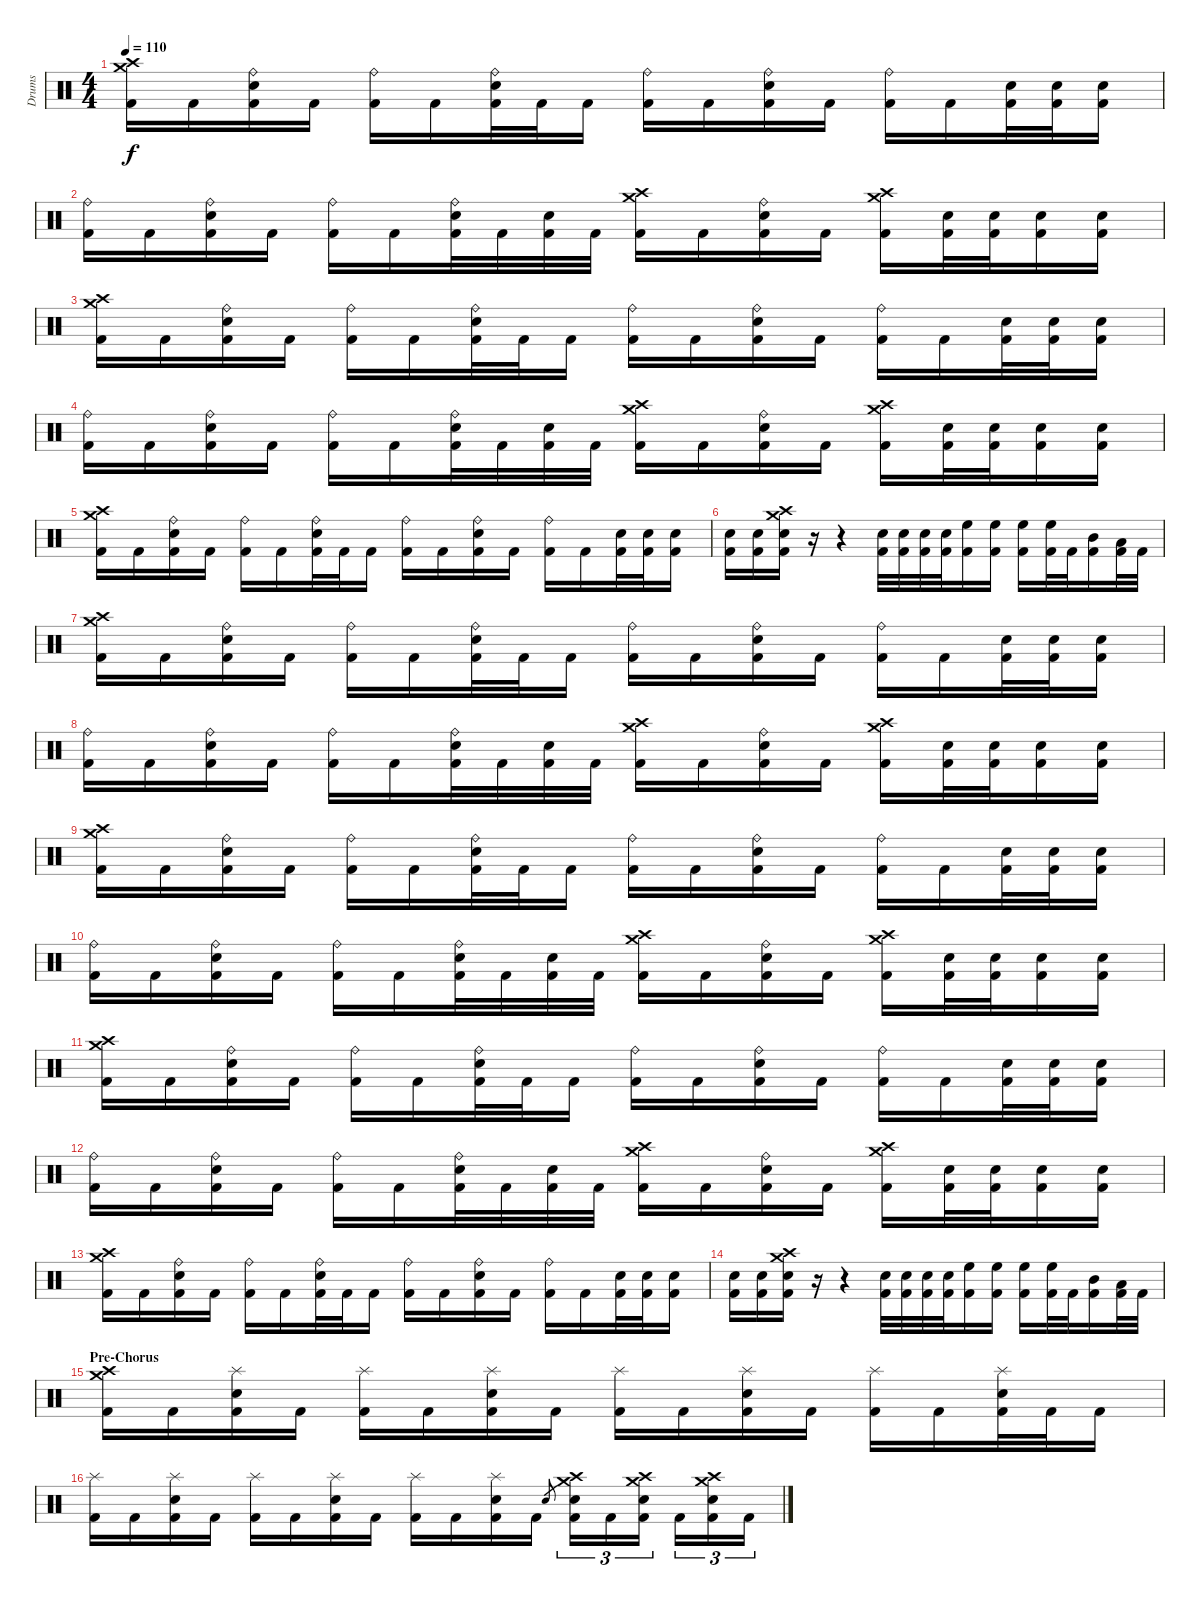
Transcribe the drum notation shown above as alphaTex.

\track ("Drums" "Drums") {instrument percussion}
\staff {score}
\articulation defaults
\ts (4 4)
\tempo 110
\clef neutral
\ks c
("Crash medium (hit)" "Crash high (hit)" "Kick (hit) 2").16{dy f} "Kick (hit) 2".16 ("Ride (bell)" "Electric Snare (hit)" "Kick (hit) 2").16 "Kick (hit) 2".16 ("Ride (bell)" "Kick (hit) 2").16 "Kick (hit) 2".16 ("Ride (bell)" "Electric Snare (hit)" "Kick (hit) 2").32 "Kick (hit) 2".32 "Kick (hit) 2".16 ("Ride (bell)" "Kick (hit) 2").16 "Kick (hit) 2".16 ("Ride (bell)" "Electric Snare (hit)" "Kick (hit) 2").16 "Kick (hit) 2".16 ("Ride (bell)" "Kick (hit) 2").16 "Kick (hit) 2".16 ("Electric Snare (hit)" "Kick (hit) 2").32 ("Electric Snare (hit)" "Kick (hit) 2").32 ("Electric Snare (hit)" "Kick (hit) 2").16 |
("Ride (bell)" "Kick (hit) 2").16 "Kick (hit) 2".16 ("Ride (bell)" "Electric Snare (hit)" "Kick (hit) 2").16 "Kick (hit) 2".16 ("Ride (bell)" "Kick (hit) 2").16 "Kick (hit) 2".16 ("Ride (bell)" "Electric Snare (hit)" "Kick (hit) 2").32 "Kick (hit) 2".32 ("Electric Snare (hit)" "Kick (hit) 2").32 "Kick (hit) 2".32 ("Crash medium (hit)" "Crash high (hit)" "Kick (hit) 2").16 "Kick (hit) 2".16 ("Ride (bell)" "Electric Snare (hit)" "Kick (hit) 2").16 "Kick (hit) 2".16 ("Crash medium (hit)" "Crash high (hit)" "Kick (hit) 2").16 ("Electric Snare (hit)" "Kick (hit) 2").32 ("Electric Snare (hit)" "Kick (hit) 2").32 ("Electric Snare (hit)" "Kick (hit) 2").16 ("Electric Snare (hit)" "Kick (hit) 2").16 |
("Crash medium (hit)" "Crash high (hit)" "Kick (hit) 2").16 "Kick (hit) 2".16 ("Ride (bell)" "Electric Snare (hit)" "Kick (hit) 2").16 "Kick (hit) 2".16 ("Ride (bell)" "Kick (hit) 2").16 "Kick (hit) 2".16 ("Ride (bell)" "Electric Snare (hit)" "Kick (hit) 2").32 "Kick (hit) 2".32 "Kick (hit) 2".16 ("Ride (bell)" "Kick (hit) 2").16 "Kick (hit) 2".16 ("Ride (bell)" "Electric Snare (hit)" "Kick (hit) 2").16 "Kick (hit) 2".16 ("Ride (bell)" "Kick (hit) 2").16 "Kick (hit) 2".16 ("Electric Snare (hit)" "Kick (hit) 2").32 ("Electric Snare (hit)" "Kick (hit) 2").32 ("Electric Snare (hit)" "Kick (hit) 2").16 |
("Ride (bell)" "Kick (hit) 2").16 "Kick (hit) 2".16 ("Ride (bell)" "Electric Snare (hit)" "Kick (hit) 2").16 "Kick (hit) 2".16 ("Ride (bell)" "Kick (hit) 2").16 "Kick (hit) 2".16 ("Ride (bell)" "Electric Snare (hit)" "Kick (hit) 2").32 "Kick (hit) 2".32 ("Electric Snare (hit)" "Kick (hit) 2").32 "Kick (hit) 2".32 ("Crash medium (hit)" "Crash high (hit)" "Kick (hit) 2").16 "Kick (hit) 2".16 ("Ride (bell)" "Electric Snare (hit)" "Kick (hit) 2").16 "Kick (hit) 2".16 ("Crash medium (hit)" "Crash high (hit)" "Kick (hit) 2").16 ("Electric Snare (hit)" "Kick (hit) 2").32 ("Electric Snare (hit)" "Kick (hit) 2").32 ("Electric Snare (hit)" "Kick (hit) 2").16 ("Electric Snare (hit)" "Kick (hit) 2").16 |
("Crash medium (hit)" "Crash high (hit)" "Kick (hit) 2").16 "Kick (hit) 2".16 ("Ride (bell)" "Electric Snare (hit)" "Kick (hit) 2").16 "Kick (hit) 2".16 ("Ride (bell)" "Kick (hit) 2").16 "Kick (hit) 2".16 ("Ride (bell)" "Electric Snare (hit)" "Kick (hit) 2").32 "Kick (hit) 2".32 "Kick (hit) 2".16 ("Ride (bell)" "Kick (hit) 2").16 "Kick (hit) 2".16 ("Ride (bell)" "Electric Snare (hit)" "Kick (hit) 2").16 "Kick (hit) 2".16 ("Ride (bell)" "Kick (hit) 2").16 "Kick (hit) 2".16 ("Electric Snare (hit)" "Kick (hit) 2").32 ("Electric Snare (hit)" "Kick (hit) 2").32 ("Electric Snare (hit)" "Kick (hit) 2").16 |
("Electric Snare (hit)" "Kick (hit) 2").16 ("Electric Snare (hit)" "Kick (hit) 2").16 ("Crash medium (hit)" "Crash high (hit)" "Electric Snare (hit)" "Kick (hit) 2").16 r.16 r.4 ("Electric Snare (hit)" "Kick (hit) 2").32 ("Electric Snare (hit)" "Kick (hit) 2").32 ("Electric Snare (hit)" "Kick (hit) 2").32 ("Electric Snare (hit)" "Kick (hit) 2").32 ("High Floor Tom (hit)" "Kick (hit) 2").16 ("High Floor Tom (hit)" "Kick (hit) 2").16 ("High Floor Tom (hit)" "Kick (hit) 2").16 ("High Floor Tom (hit)" "Kick (hit) 2").32 "Kick (hit) 2".32 ("Mid Tom (hit)" "Kick (hit) 2").16 ("Low Tom (hit)" "Kick (hit) 2").32 "Kick (hit) 2".32 |
("Crash medium (hit)" "Crash high (hit)" "Kick (hit) 2").16 "Kick (hit) 2".16 ("Ride (bell)" "Electric Snare (hit)" "Kick (hit) 2").16 "Kick (hit) 2".16 ("Ride (bell)" "Kick (hit) 2").16 "Kick (hit) 2".16 ("Ride (bell)" "Electric Snare (hit)" "Kick (hit) 2").32 "Kick (hit) 2".32 "Kick (hit) 2".16 ("Ride (bell)" "Kick (hit) 2").16 "Kick (hit) 2".16 ("Ride (bell)" "Electric Snare (hit)" "Kick (hit) 2").16 "Kick (hit) 2".16 ("Ride (bell)" "Kick (hit) 2").16 "Kick (hit) 2".16 ("Electric Snare (hit)" "Kick (hit) 2").32 ("Electric Snare (hit)" "Kick (hit) 2").32 ("Electric Snare (hit)" "Kick (hit) 2").16 |
("Ride (bell)" "Kick (hit) 2").16 "Kick (hit) 2".16 ("Ride (bell)" "Electric Snare (hit)" "Kick (hit) 2").16 "Kick (hit) 2".16 ("Ride (bell)" "Kick (hit) 2").16 "Kick (hit) 2".16 ("Ride (bell)" "Electric Snare (hit)" "Kick (hit) 2").32 "Kick (hit) 2".32 ("Electric Snare (hit)" "Kick (hit) 2").32 "Kick (hit) 2".32 ("Crash medium (hit)" "Crash high (hit)" "Kick (hit) 2").16 "Kick (hit) 2".16 ("Ride (bell)" "Electric Snare (hit)" "Kick (hit) 2").16 "Kick (hit) 2".16 ("Crash medium (hit)" "Crash high (hit)" "Kick (hit) 2").16 ("Electric Snare (hit)" "Kick (hit) 2").32 ("Electric Snare (hit)" "Kick (hit) 2").32 ("Electric Snare (hit)" "Kick (hit) 2").16 ("Electric Snare (hit)" "Kick (hit) 2").16 |
("Crash medium (hit)" "Crash high (hit)" "Kick (hit) 2").16 "Kick (hit) 2".16 ("Ride (bell)" "Electric Snare (hit)" "Kick (hit) 2").16 "Kick (hit) 2".16 ("Ride (bell)" "Kick (hit) 2").16 "Kick (hit) 2".16 ("Ride (bell)" "Electric Snare (hit)" "Kick (hit) 2").32 "Kick (hit) 2".32 "Kick (hit) 2".16 ("Ride (bell)" "Kick (hit) 2").16 "Kick (hit) 2".16 ("Ride (bell)" "Electric Snare (hit)" "Kick (hit) 2").16 "Kick (hit) 2".16 ("Ride (bell)" "Kick (hit) 2").16 "Kick (hit) 2".16 ("Electric Snare (hit)" "Kick (hit) 2").32 ("Electric Snare (hit)" "Kick (hit) 2").32 ("Electric Snare (hit)" "Kick (hit) 2").16 |
("Ride (bell)" "Kick (hit) 2").16 "Kick (hit) 2".16 ("Ride (bell)" "Electric Snare (hit)" "Kick (hit) 2").16 "Kick (hit) 2".16 ("Ride (bell)" "Kick (hit) 2").16 "Kick (hit) 2".16 ("Ride (bell)" "Electric Snare (hit)" "Kick (hit) 2").32 "Kick (hit) 2".32 ("Electric Snare (hit)" "Kick (hit) 2").32 "Kick (hit) 2".32 ("Crash medium (hit)" "Crash high (hit)" "Kick (hit) 2").16 "Kick (hit) 2".16 ("Ride (bell)" "Electric Snare (hit)" "Kick (hit) 2").16 "Kick (hit) 2".16 ("Crash medium (hit)" "Crash high (hit)" "Kick (hit) 2").16 ("Electric Snare (hit)" "Kick (hit) 2").32 ("Electric Snare (hit)" "Kick (hit) 2").32 ("Electric Snare (hit)" "Kick (hit) 2").16 ("Electric Snare (hit)" "Kick (hit) 2").16 |
("Crash medium (hit)" "Crash high (hit)" "Kick (hit) 2").16 "Kick (hit) 2".16 ("Ride (bell)" "Electric Snare (hit)" "Kick (hit) 2").16 "Kick (hit) 2".16 ("Ride (bell)" "Kick (hit) 2").16 "Kick (hit) 2".16 ("Ride (bell)" "Electric Snare (hit)" "Kick (hit) 2").32 "Kick (hit) 2".32 "Kick (hit) 2".16 ("Ride (bell)" "Kick (hit) 2").16 "Kick (hit) 2".16 ("Ride (bell)" "Electric Snare (hit)" "Kick (hit) 2").16 "Kick (hit) 2".16 ("Ride (bell)" "Kick (hit) 2").16 "Kick (hit) 2".16 ("Electric Snare (hit)" "Kick (hit) 2").32 ("Electric Snare (hit)" "Kick (hit) 2").32 ("Electric Snare (hit)" "Kick (hit) 2").16 |
("Ride (bell)" "Kick (hit) 2").16 "Kick (hit) 2".16 ("Ride (bell)" "Electric Snare (hit)" "Kick (hit) 2").16 "Kick (hit) 2".16 ("Ride (bell)" "Kick (hit) 2").16 "Kick (hit) 2".16 ("Ride (bell)" "Electric Snare (hit)" "Kick (hit) 2").32 "Kick (hit) 2".32 ("Electric Snare (hit)" "Kick (hit) 2").32 "Kick (hit) 2".32 ("Crash medium (hit)" "Crash high (hit)" "Kick (hit) 2").16 "Kick (hit) 2".16 ("Ride (bell)" "Electric Snare (hit)" "Kick (hit) 2").16 "Kick (hit) 2".16 ("Crash medium (hit)" "Crash high (hit)" "Kick (hit) 2").16 ("Electric Snare (hit)" "Kick (hit) 2").32 ("Electric Snare (hit)" "Kick (hit) 2").32 ("Electric Snare (hit)" "Kick (hit) 2").16 ("Electric Snare (hit)" "Kick (hit) 2").16 |
("Crash medium (hit)" "Crash high (hit)" "Kick (hit) 2").16 "Kick (hit) 2".16 ("Ride (bell)" "Electric Snare (hit)" "Kick (hit) 2").16 "Kick (hit) 2".16 ("Ride (bell)" "Kick (hit) 2").16 "Kick (hit) 2".16 ("Ride (bell)" "Electric Snare (hit)" "Kick (hit) 2").32 "Kick (hit) 2".32 "Kick (hit) 2".16 ("Ride (bell)" "Kick (hit) 2").16 "Kick (hit) 2".16 ("Ride (bell)" "Electric Snare (hit)" "Kick (hit) 2").16 "Kick (hit) 2".16 ("Ride (bell)" "Kick (hit) 2").16 "Kick (hit) 2".16 ("Electric Snare (hit)" "Kick (hit) 2").32 ("Electric Snare (hit)" "Kick (hit) 2").32 ("Electric Snare (hit)" "Kick (hit) 2").16 |
("Electric Snare (hit)" "Kick (hit) 2").16 ("Electric Snare (hit)" "Kick (hit) 2").16 ("Crash medium (hit)" "Crash high (hit)" "Electric Snare (hit)" "Kick (hit) 2").16 r.16 r.4 ("Electric Snare (hit)" "Kick (hit) 2").32 ("Electric Snare (hit)" "Kick (hit) 2").32 ("Electric Snare (hit)" "Kick (hit) 2").32 ("Electric Snare (hit)" "Kick (hit) 2").32 ("High Floor Tom (hit)" "Kick (hit) 2").16 ("High Floor Tom (hit)" "Kick (hit) 2").16 ("High Floor Tom (hit)" "Kick (hit) 2").16 ("High Floor Tom (hit)" "Kick (hit) 2").32 "Kick (hit) 2".32 ("Mid Tom (hit)" "Kick (hit) 2").16 ("Low Tom (hit)" "Kick (hit) 2").32 "Kick (hit) 2".32 |
\section ("" "Pre-Chorus")
("Crash medium (hit)" "Crash high (hit)" "Kick (hit) 2").16 "Kick (hit) 2".16 ("Splash (hit)" "Electric Snare (hit)" "Kick (hit) 2").16 "Kick (hit) 2".16 ("Splash (hit)" "Kick (hit) 2").16 "Kick (hit) 2".16 ("Splash (hit)" "Electric Snare (hit)" "Kick (hit) 2").16 "Kick (hit) 2".16 ("Splash (hit)" "Kick (hit) 2").16 "Kick (hit) 2".16 ("Splash (hit)" "Electric Snare (hit)" "Kick (hit) 2").16 "Kick (hit) 2".16 ("Splash (hit)" "Kick (hit) 2").16 "Kick (hit) 2".16 ("Splash (hit)" "Electric Snare (hit)" "Kick (hit) 2").32 "Kick (hit) 2".32 "Kick (hit) 2".16 |
("Splash (hit)" "Kick (hit) 2").16 "Kick (hit) 2".16 ("Splash (hit)" "Electric Snare (hit)" "Kick (hit) 2").16 "Kick (hit) 2".16 ("Splash (hit)" "Kick (hit) 2").16 "Kick (hit) 2".16 ("Splash (hit)" "Electric Snare (hit)" "Kick (hit) 2").16 "Kick (hit) 2".16 ("Splash (hit)" "Kick (hit) 2").16 "Kick (hit) 2".16 ("Splash (hit)" "Electric Snare (hit)" "Kick (hit) 2").16 "Kick (hit) 2".16 "Electric Snare (hit)".8{gr} ("Crash medium (hit)" "Crash high (hit)" "Electric Snare (hit)" "Kick (hit) 2").16{tu (3 2)} "Kick (hit) 2".16{tu (3 2)} ("Crash medium (hit)" "Crash high (hit)" "Electric Snare (hit)" "Kick (hit) 2").16{tu (3 2)} "Kick (hit) 2".16{tu (3 2)} ("Crash medium (hit)" "Crash high (hit)" "Electric Snare (hit)" "Kick (hit) 2").16{tu (3 2)} "Kick (hit) 2".16{tu (3 2)}
